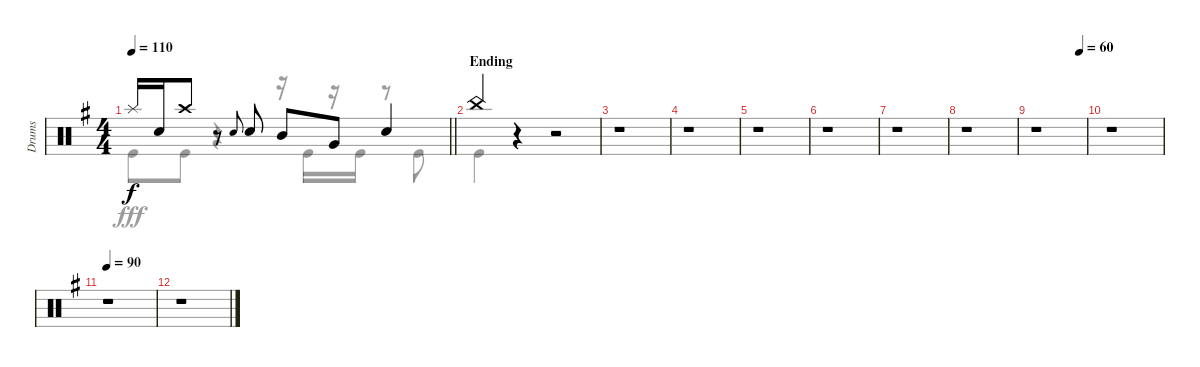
\track ("Drums" "Drums") {instrument percussion}
\staff {score}
\articulation defaults
\voice
\ts (4 4)
\tempo 110
\clef neutral
\barLineRight lightlight
\ks g "Splash (hit)".16{dy f} "Snare (hit) 2".16 "Crash high (hit)".8
r.8 "Snare (hit) 2".8{gr onbeat} "Snare (hit) 2".8 "Mid Tom (hit)".8 "Very Low Tom (hit)".8 "Snare (hit) 2".4 |
\section ("" "Ending")
"China (hit)".4 r.4 r.2 |
r.1 |
r.1 |
r.1 |
r.1 |
r.1 |
r.1 |
\tempo (60 0.875)
r.1 |
r.1 |
\tempo 90
r.1 |
r.1
\voice
\clef neutral
\ottava regular
\simile none
\barLineRight lightlight
\ks g "Kick (hit)".8{dy fff} "Kick (hit)".8
r.4 r.16 "Kick (hit)".16 r.16 "Kick (hit)".16 r.8 "Kick (hit)".8 |
"Kick (hit)".4 r.4 r.2 |
r.1 |
r.1 |
r.1 |
r.1 |
r.1 |
r.1 |
r.1 |
r.1 |
r.1 |
r.1
